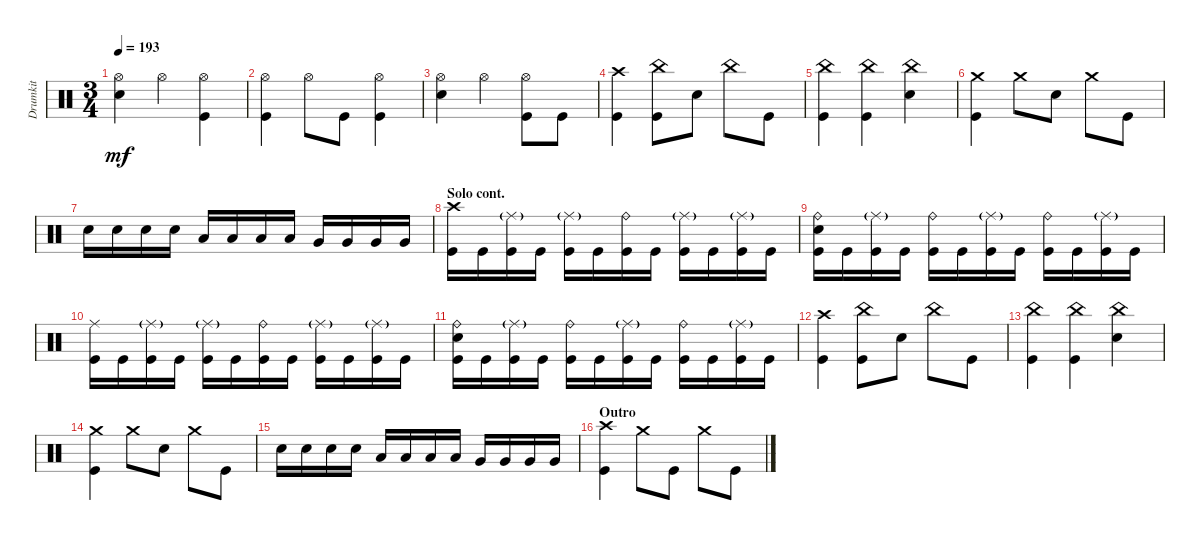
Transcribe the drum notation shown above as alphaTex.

\track ("Drumkit" "Drumkit") {instrument percussion}
\staff {score}
\articulation defaults
\ts (3 4)
\tempo 193
\clef neutral
\ks c
("Hi-Hat (open)" "Snare (hit) 2").4{dy mf} "Hi-Hat (open)".4 ("Kick (hit)" "Hi-Hat (open)").4 |
("Kick (hit)" "Hi-Hat (open)").4 "Hi-Hat (open)".8 "Kick (hit)".8 ("Hi-Hat (open)" "Kick (hit)").4 |
("Hi-Hat (open)" "Snare (hit) 2").4 "Hi-Hat (open)".4 ("Kick (hit)" "Hi-Hat (open)").8 "Kick (hit)".8 |
("Crash high (hit)" "Kick (hit)").4 ("Kick (hit)" "China (hit)").8 "Snare (hit) 2".8 "China (hit)".8 "Kick (hit)".8 |
("Kick (hit)" "China (hit)").4 ("Kick (hit)" "China (hit)").4 ("Snare (hit) 2" "China (hit)").4 |
("Kick (hit)" "Crash medium (hit)").4 "Crash medium (hit)".8 "Snare (hit) 2".8 "Crash medium (hit)".8 "Kick (hit)".8 |
"Snare (hit) 2".16 "Snare (hit) 2".16 "Snare (hit) 2".16 "Snare (hit) 2".16 "Low Tom (hit)".16 "Low Tom (hit)".16 "Low Tom (hit)".16 "Low Tom (hit)".16 "Very Low Tom (hit)".16 "Very Low Tom (hit)".16 "Very Low Tom (hit)".16 "Very Low Tom (hit)".16 |
\section ("" "Solo cont.")
("Kick (hit)" "Crash high (hit)").16 "Kick (hit)".16 ("Kick (hit)" "Ride (middle)"{g}).16 "Kick (hit)".16 ("Kick (hit)" "Ride (middle)"{g}).16 "Kick (hit)".16 ("Kick (hit)" "Ride (bell)").16 "Kick (hit)".16 ("Kick (hit)" "Ride (middle)"{g}).16 "Kick (hit)".16 ("Kick (hit)" "Ride (middle)"{g}).16 "Kick (hit)".16 |
("Kick (hit)" "Snare (hit) 2" "Ride (bell)").16 "Kick (hit)".16 ("Kick (hit)" "Ride (middle)"{g}).16 "Kick (hit)".16 ("Kick (hit)" "Ride (bell)").16 "Kick (hit)".16 ("Kick (hit)" "Ride (middle)"{g}).16 "Kick (hit)".16 ("Kick (hit)" "Ride (bell)").16 "Kick (hit)".16 ("Kick (hit)" "Ride (middle)"{g}).16 "Kick (hit)".16 |
("Kick (hit)" "Ride (middle)").16 "Kick (hit)".16 ("Kick (hit)" "Ride (middle)"{g}).16 "Kick (hit)".16 ("Kick (hit)" "Ride (middle)"{g}).16 "Kick (hit)".16 ("Kick (hit)" "Ride (bell)").16 "Kick (hit)".16 ("Kick (hit)" "Ride (middle)"{g}).16 "Kick (hit)".16 ("Kick (hit)" "Ride (middle)"{g}).16 "Kick (hit)".16 |
("Kick (hit)" "Snare (hit) 2" "Ride (bell)").16 "Kick (hit)".16 ("Kick (hit)" "Ride (middle)"{g}).16 "Kick (hit)".16 ("Kick (hit)" "Ride (bell)").16 "Kick (hit)".16 ("Kick (hit)" "Ride (middle)"{g}).16 "Kick (hit)".16 ("Kick (hit)" "Ride (bell)").16 "Kick (hit)".16 ("Kick (hit)" "Ride (middle)"{g}).16 "Kick (hit)".16 |
("Crash high (hit)" "Kick (hit)").4 ("Kick (hit)" "China (hit)").8 "Snare (hit) 2".8 "China (hit)".8 "Kick (hit)".8 |
("Kick (hit)" "China (hit)").4 ("Kick (hit)" "China (hit)").4 ("Snare (hit) 2" "China (hit)").4 |
("Kick (hit)" "Crash medium (hit)").4 "Crash medium (hit)".8 "Snare (hit) 2".8 "Crash medium (hit)".8 "Kick (hit)".8 |
"Snare (hit) 2".16 "Snare (hit) 2".16 "Snare (hit) 2".16 "Snare (hit) 2".16 "Low Tom (hit)".16 "Low Tom (hit)".16 "Low Tom (hit)".16 "Low Tom (hit)".16 "Very Low Tom (hit)".16 "Very Low Tom (hit)".16 "Very Low Tom (hit)".16 "Very Low Tom (hit)".16 |
\section ("" "Outro")
("Crash high (hit)" "Kick (hit)").4 "Crash medium (hit)".8 "Kick (hit)".8 "Crash medium (hit)".8 "Kick (hit)".8
